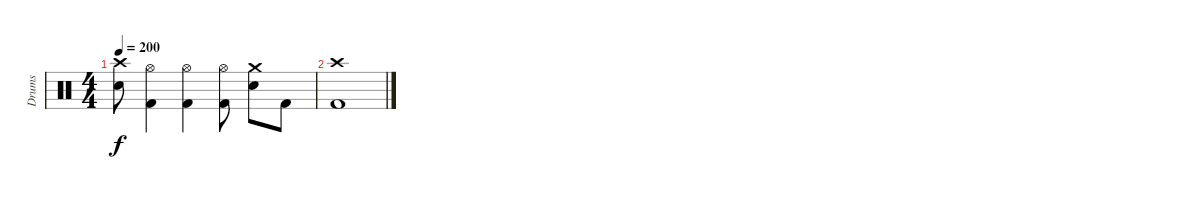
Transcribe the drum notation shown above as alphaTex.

\track ("Drums" "Drums") {instrument percussion}
\staff {score}
\articulation defaults
\ts (4 4)
\tempo 200
\clef neutral
\ks c
("Electric Snare (hit)" "Crash high (hit)").8{dy f} ("Kick (hit) 2" "Hi-Hat (open)").4 ("Kick (hit) 2" "Hi-Hat (open)").4 ("Kick (hit) 2" "Hi-Hat (open)").8 ("Electric Snare (hit)" "Crash medium (hit)").8 "Kick (hit) 2".8 |
("Kick (hit) 2" "Crash high (hit)").1
